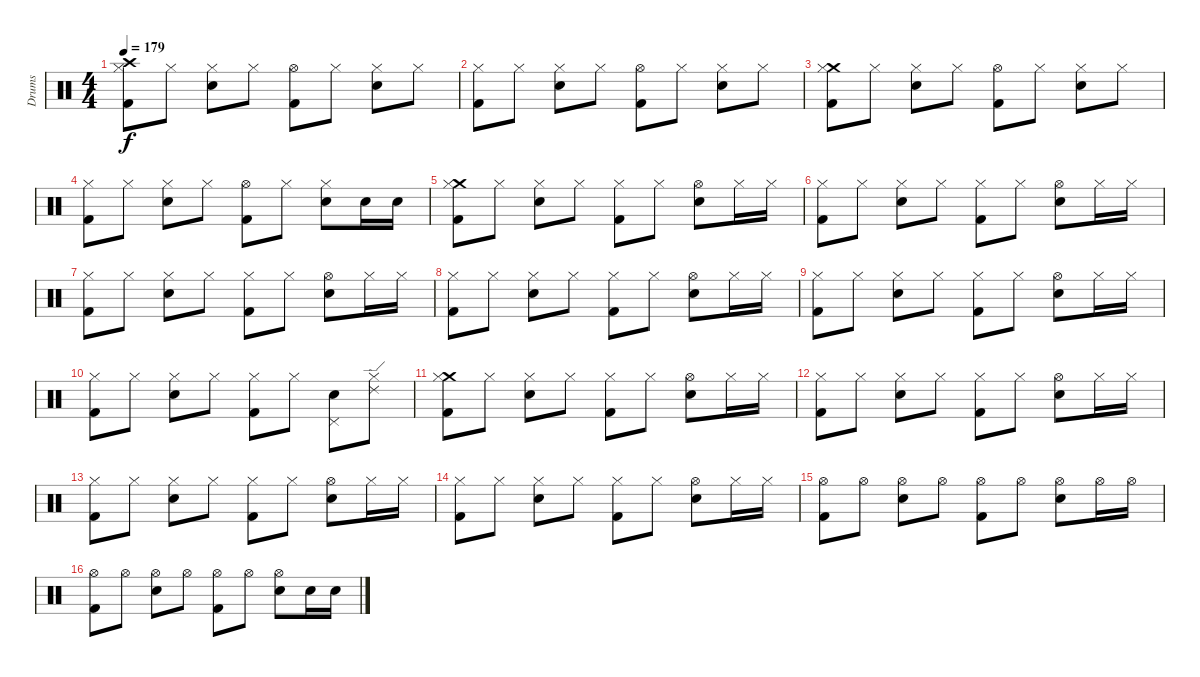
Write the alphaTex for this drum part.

\track ("Drums" "Drums") {instrument percussion}
\staff {score}
\articulation defaults
\ts (4 4)
\tempo 179
\clef neutral
\ks c
("Kick (hit) 2" "Crash high (hit)" "Hi-Hat (closed)").8{dy f} "Hi-Hat (closed)".8 ("Electric Snare (hit)" "Hi-Hat (closed)").8 "Hi-Hat (closed)".8 ("Kick (hit) 2" "Hi-Hat (open)").8 "Hi-Hat (closed)".8 ("Electric Snare (hit)" "Hi-Hat (closed)").8 "Hi-Hat (closed)".8 |
("Kick (hit) 2" "Hi-Hat (closed)").8 "Hi-Hat (closed)".8 ("Electric Snare (hit)" "Hi-Hat (closed)").8 "Hi-Hat (closed)".8 ("Kick (hit) 2" "Hi-Hat (open)").8 "Hi-Hat (closed)".8 ("Electric Snare (hit)" "Hi-Hat (closed)").8 "Hi-Hat (closed)".8 |
("Kick (hit) 2" "Crash medium (hit)" "Hi-Hat (closed)").8 "Hi-Hat (closed)".8 ("Electric Snare (hit)" "Hi-Hat (closed)").8 "Hi-Hat (closed)".8 ("Kick (hit) 2" "Hi-Hat (open)").8 "Hi-Hat (closed)".8 ("Electric Snare (hit)" "Hi-Hat (closed)").8 "Hi-Hat (closed)".8 |
("Kick (hit) 2" "Hi-Hat (closed)").8 "Hi-Hat (closed)".8 ("Electric Snare (hit)" "Hi-Hat (closed)").8 "Hi-Hat (closed)".8 ("Kick (hit) 2" "Hi-Hat (open)").8 "Hi-Hat (closed)".8 ("Electric Snare (hit)" "Hi-Hat (closed)").8 "Electric Snare (hit)".16 "Electric Snare (hit)".16 |
("Crash medium (hit)" "Hi-Hat (closed)" "Kick (hit) 2").8 "Hi-Hat (closed)".8 ("Hi-Hat (closed)" "Electric Snare (hit)").8 "Hi-Hat (closed)".8 ("Hi-Hat (closed)" "Kick (hit) 2").8 "Hi-Hat (closed)".8 ("Hi-Hat (open)" "Electric Snare (hit)").8 "Hi-Hat (closed)".16 "Hi-Hat (closed)".16 |
("Hi-Hat (closed)" "Kick (hit) 2").8 "Hi-Hat (closed)".8 ("Hi-Hat (closed)" "Electric Snare (hit)").8 "Hi-Hat (closed)".8 ("Hi-Hat (closed)" "Kick (hit) 2").8 "Hi-Hat (closed)".8 ("Hi-Hat (open)" "Electric Snare (hit)").8 "Hi-Hat (closed)".16 "Hi-Hat (closed)".16 |
("Hi-Hat (closed)" "Kick (hit) 2").8 "Hi-Hat (closed)".8 ("Hi-Hat (closed)" "Electric Snare (hit)").8 "Hi-Hat (closed)".8 ("Hi-Hat (closed)" "Kick (hit) 2").8 "Hi-Hat (closed)".8 ("Hi-Hat (open)" "Electric Snare (hit)").8 "Hi-Hat (closed)".16 "Hi-Hat (closed)".16 |
("Hi-Hat (closed)" "Kick (hit) 2").8 "Hi-Hat (closed)".8 ("Hi-Hat (closed)" "Electric Snare (hit)").8 "Hi-Hat (closed)".8 ("Hi-Hat (closed)" "Kick (hit) 2").8 "Hi-Hat (closed)".8 ("Hi-Hat (open)" "Electric Snare (hit)").8 "Hi-Hat (closed)".16 "Hi-Hat (closed)".16 |
("Hi-Hat (closed)" "Kick (hit) 2").8 "Hi-Hat (closed)".8 ("Hi-Hat (closed)" "Electric Snare (hit)").8 "Hi-Hat (closed)".8 ("Hi-Hat (closed)" "Kick (hit) 2").8 "Hi-Hat (closed)".8 ("Hi-Hat (open)" "Electric Snare (hit)").8 "Hi-Hat (closed)".16 "Hi-Hat (closed)".16 |
("Hi-Hat (closed)" "Kick (hit) 2").8 "Hi-Hat (closed)".8 ("Hi-Hat (closed)" "Electric Snare (hit)").8 "Hi-Hat (closed)".8 ("Hi-Hat (closed)" "Kick (hit) 2").8 "Hi-Hat (closed)".8 ("Pedal Hi-Hat (hit)" "Electric Snare (hit)").8 ("Hi-Hat (closed)" "Ride (edge) 2").8 |
("Crash medium (hit)" "Hi-Hat (closed)" "Kick (hit) 2").8 "Hi-Hat (closed)".8 ("Hi-Hat (closed)" "Electric Snare (hit)").8 "Hi-Hat (closed)".8 ("Hi-Hat (closed)" "Kick (hit) 2").8 "Hi-Hat (closed)".8 ("Hi-Hat (open)" "Electric Snare (hit)").8 "Hi-Hat (closed)".16 "Hi-Hat (closed)".16 |
("Hi-Hat (closed)" "Kick (hit) 2").8 "Hi-Hat (closed)".8 ("Hi-Hat (closed)" "Electric Snare (hit)").8 "Hi-Hat (closed)".8 ("Hi-Hat (closed)" "Kick (hit) 2").8 "Hi-Hat (closed)".8 ("Hi-Hat (open)" "Electric Snare (hit)").8 "Hi-Hat (closed)".16 "Hi-Hat (closed)".16 |
("Hi-Hat (closed)" "Kick (hit) 2").8 "Hi-Hat (closed)".8 ("Hi-Hat (closed)" "Electric Snare (hit)").8 "Hi-Hat (closed)".8 ("Hi-Hat (closed)" "Kick (hit) 2").8 "Hi-Hat (closed)".8 ("Hi-Hat (open)" "Electric Snare (hit)").8 "Hi-Hat (closed)".16 "Hi-Hat (closed)".16 |
("Hi-Hat (closed)" "Kick (hit) 2").8 "Hi-Hat (closed)".8 ("Hi-Hat (closed)" "Electric Snare (hit)").8 "Hi-Hat (closed)".8 ("Hi-Hat (closed)" "Kick (hit) 2").8 "Hi-Hat (closed)".8 ("Hi-Hat (open)" "Electric Snare (hit)").8 "Hi-Hat (closed)".16 "Hi-Hat (closed)".16 |
("Hi-Hat (open)" "Kick (hit) 2").8 "Hi-Hat (open)".8 ("Hi-Hat (open)" "Electric Snare (hit)").8 "Hi-Hat (open)".8 ("Hi-Hat (open)" "Kick (hit) 2").8 "Hi-Hat (open)".8 ("Hi-Hat (open)" "Electric Snare (hit)").8 "Hi-Hat (open)".16 "Hi-Hat (open)".16 |
("Hi-Hat (open)" "Kick (hit) 2").8 "Hi-Hat (open)".8 ("Hi-Hat (open)" "Electric Snare (hit)").8 "Hi-Hat (open)".8 ("Hi-Hat (open)" "Kick (hit) 2").8 "Hi-Hat (open)".8 ("Hi-Hat (open)" "Electric Snare (hit)").8 "Electric Snare (hit)".16 "Electric Snare (hit)".16
